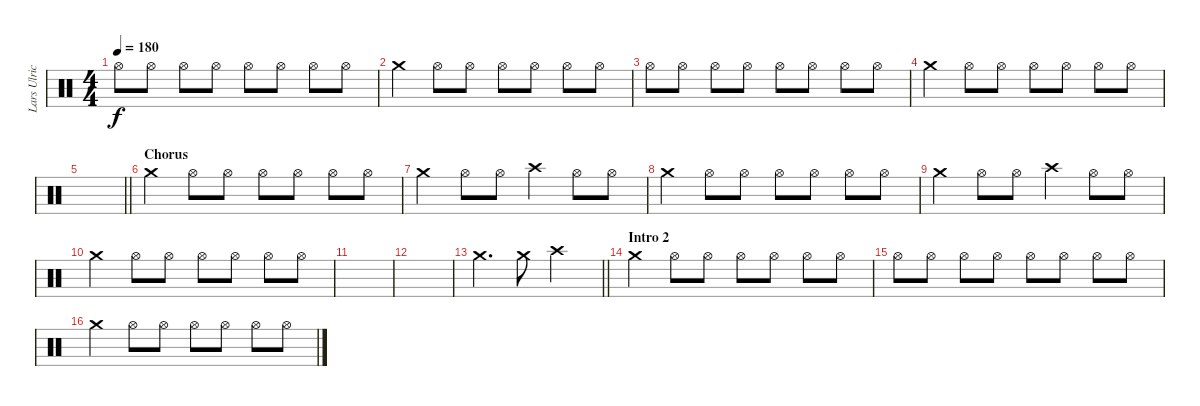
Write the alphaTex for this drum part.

\track ("Lars Ulrich" "Lars Ulric") {instrument percussion}
\staff {score}
\articulation defaults
\ts (4 4)
\tempo 180
\clef neutral
\ks c "Hi-Hat (open)".8{dy f} "Hi-Hat (open)".8 "Hi-Hat (open)".8 "Hi-Hat (open)".8 "Hi-Hat (open)".8 "Hi-Hat (open)".8 "Hi-Hat (open)".8 "Hi-Hat (open)".8
|
"Crash medium (hit)".4 "Hi-Hat (open)".8 "Hi-Hat (open)".8 "Hi-Hat (open)".8 "Hi-Hat (open)".8 "Hi-Hat (open)".8 "Hi-Hat (open)".8 |
"Hi-Hat (open)".8 "Hi-Hat (open)".8 "Hi-Hat (open)".8 "Hi-Hat (open)".8 "Hi-Hat (open)".8 "Hi-Hat (open)".8 "Hi-Hat (open)".8 "Hi-Hat (open)".8 |
"Crash medium (hit)".4 "Hi-Hat (open)".8 "Hi-Hat (open)".8 "Hi-Hat (open)".8 "Hi-Hat (open)".8 "Hi-Hat (open)".8 "Hi-Hat (open)".8 |
\barLineRight lightlight
|
\section ("" "Chorus")
"Crash medium (hit)".4 "Hi-Hat (open)".8 "Hi-Hat (open)".8 "Hi-Hat (open)".8 "Hi-Hat (open)".8 "Hi-Hat (open)".8 "Hi-Hat (open)".8 |
"Crash medium (hit)".4 "Hi-Hat (open)".8 "Hi-Hat (open)".8 "Crash high (hit)".4 "Hi-Hat (open)".8 "Hi-Hat (open)".8 |
"Crash medium (hit)".4 "Hi-Hat (open)".8 "Hi-Hat (open)".8 "Hi-Hat (open)".8 "Hi-Hat (open)".8 "Hi-Hat (open)".8 "Hi-Hat (open)".8 |
"Crash medium (hit)".4 "Hi-Hat (open)".8 "Hi-Hat (open)".8 "Crash high (hit)".4 "Hi-Hat (open)".8 "Hi-Hat (open)".8 |
"Crash medium (hit)".4 "Hi-Hat (open)".8 "Hi-Hat (open)".8 "Hi-Hat (open)".8 "Hi-Hat (open)".8 "Hi-Hat (open)".8 "Hi-Hat (open)".8 |
|
|
\barLineRight lightlight "Crash medium (hit)".4{d} "Crash medium (hit)".8 "Crash high (hit)".2
|
\section ("" "Intro 2")
"Crash medium (hit)".4 "Hi-Hat (open)".8 "Hi-Hat (open)".8 "Hi-Hat (open)".8 "Hi-Hat (open)".8 "Hi-Hat (open)".8 "Hi-Hat (open)".8 |
"Hi-Hat (open)".8 "Hi-Hat (open)".8 "Hi-Hat (open)".8 "Hi-Hat (open)".8 "Hi-Hat (open)".8 "Hi-Hat (open)".8 "Hi-Hat (open)".8 "Hi-Hat (open)".8 |
"Crash medium (hit)".4 "Hi-Hat (open)".8 "Hi-Hat (open)".8 "Hi-Hat (open)".8 "Hi-Hat (open)".8 "Hi-Hat (open)".8 "Hi-Hat (open)".8
